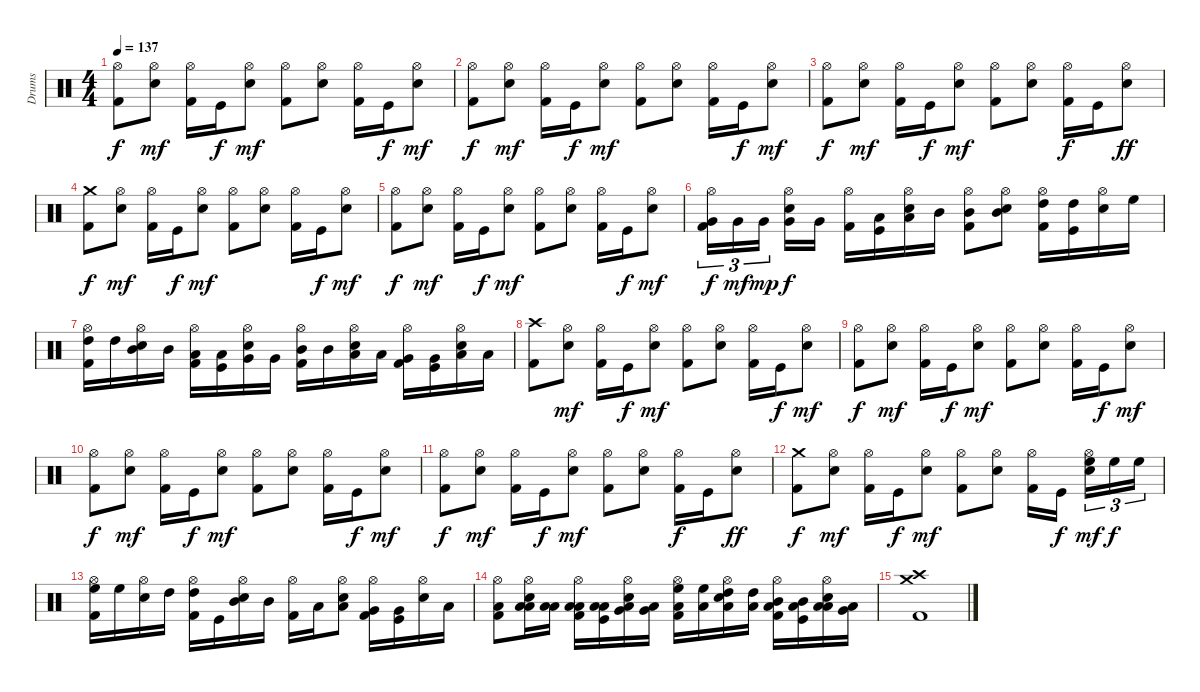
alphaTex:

\track ("Drums" "Drums") {instrument percussion}
\staff {score}
\articulation defaults
\ts (4 4)
\tempo 137
\clef neutral
\ks c
("Hi-Hat (open)" "Kick (hit) 2").8{dy f} ("Hi-Hat (open)" "Snare (hit) 2").8{dy mf} ("Hi-Hat (open)" "Kick (hit) 2").16 "Kick (hit)".16{dy f} ("Hi-Hat (open)" "Snare (hit) 2").8{dy mf} ("Hi-Hat (open)" "Kick (hit) 2").8 ("Hi-Hat (open)" "Snare (hit) 2").8 ("Hi-Hat (open)" "Kick (hit) 2").16 "Kick (hit)".16{dy f} ("Hi-Hat (open)" "Snare (hit) 2").8{dy mf} |
("Hi-Hat (open)" "Kick (hit) 2").8{dy f} ("Hi-Hat (open)" "Snare (hit) 2").8{dy mf} ("Hi-Hat (open)" "Kick (hit) 2").16 "Kick (hit)".16{dy f} ("Hi-Hat (open)" "Snare (hit) 2").8{dy mf} ("Hi-Hat (open)" "Kick (hit) 2").8 ("Hi-Hat (open)" "Snare (hit) 2").8 ("Hi-Hat (open)" "Kick (hit) 2").16 "Kick (hit)".16{dy f} ("Hi-Hat (open)" "Snare (hit) 2").8{dy mf} |
("Hi-Hat (open)" "Kick (hit) 2").8{dy f} ("Hi-Hat (open)" "Snare (hit) 2").8{dy mf} ("Hi-Hat (open)" "Kick (hit) 2").16 "Kick (hit)".16{dy f} ("Hi-Hat (open)" "Snare (hit) 2").8{dy mf} ("Hi-Hat (open)" "Kick (hit) 2").8 ("Hi-Hat (open)" "Snare (hit) 2").8 ("Hi-Hat (open)" "Kick (hit) 2").16{dy f} "Kick (hit)".16 ("Hi-Hat (open)" "Snare (hit) 2").8{dy ff} |
("Crash medium (hit)" "Kick (hit) 2").8{dy f} ("Hi-Hat (open)" "Snare (hit) 2").8{dy mf} ("Hi-Hat (open)" "Kick (hit) 2").16 "Kick (hit)".16{dy f} ("Hi-Hat (open)" "Snare (hit) 2").8{dy mf} ("Hi-Hat (open)" "Kick (hit) 2").8 ("Hi-Hat (open)" "Snare (hit) 2").8 ("Hi-Hat (open)" "Kick (hit) 2").16 "Kick (hit)".16{dy f} ("Hi-Hat (open)" "Snare (hit) 2").8{dy mf} |
("Hi-Hat (open)" "Kick (hit) 2").8{dy f} ("Hi-Hat (open)" "Snare (hit) 2").8{dy mf} ("Hi-Hat (open)" "Kick (hit) 2").16 "Kick (hit)".16{dy f} ("Hi-Hat (open)" "Snare (hit) 2").8{dy mf} ("Hi-Hat (open)" "Kick (hit) 2").8 ("Hi-Hat (open)" "Snare (hit) 2").8 ("Hi-Hat (open)" "Kick (hit) 2").16 "Kick (hit)".16{dy f} ("Hi-Hat (open)" "Snare (hit) 2").8{dy mf} |
("Hi-Hat (open)" "Very Low Tom (hit)" "Kick (hit) 2").16{tu (3 2) dy f} "Very Low Tom (hit)".16{tu (3 2) dy mf} "Very Low Tom (hit)".16{tu (3 2) dy mp beam splitsecondary} ("Hi-Hat (open)" "Very Low Tom (hit)" "Snare (hit) 2").16{dy f} "Very Low Tom (hit)".16 ("Hi-Hat (open)" "Kick (hit) 2").16 ("Low Tom (hit)" "Kick (hit)").16 ("Hi-Hat (open)" "Low Tom (hit)" "Snare (hit) 2").16 "Mid Tom (hit)".16 ("Hi-Hat (open)" "Mid Tom (hit)" "Kick (hit) 2").8 ("Hi-Hat (open)" "Mid Tom (hit)" "Snare (hit) 2").8 ("Hi-Hat (open)" "High Tom (hit)" "Kick (hit) 2").16 ("High Tom (hit)" "Kick (hit)").16 ("Hi-Hat (open)" "Snare (hit) 2").16 "High Floor Tom (hit)".16 |
("Hi-Hat (open)" "High Tom (hit)" "Kick (hit) 2").16 "High Tom (hit)".16 ("Hi-Hat (open)" "Mid Tom (hit)" "Snare (hit) 2").16 "Mid Tom (hit)".16 ("Hi-Hat (open)" "Low Tom (hit)" "Kick (hit) 2").16 ("Low Tom (hit)" "Kick (hit)").16 ("Hi-Hat (open)" "Very Low Tom (hit)" "Snare (hit) 2").16 "Very Low Tom (hit)".16 ("Hi-Hat (open)" "Mid Tom (hit)" "Kick (hit) 2").16 "Mid Tom (hit)".16 ("Hi-Hat (open)" "Low Tom (hit)" "Snare (hit) 2").16 "Low Tom (hit)".16 ("Hi-Hat (open)" "Very Low Tom (hit)" "Kick (hit) 2").16 ("Very Low Tom (hit)" "Kick (hit)").16 ("Hi-Hat (open)" "Low Floor Tom (hit)" "Snare (hit) 2").16 "Low Floor Tom (hit)".16 |
("Crash high (hit)" "Kick (hit) 2").8 ("Hi-Hat (open)" "Snare (hit) 2").8{dy mf} ("Hi-Hat (open)" "Kick (hit) 2").16 "Kick (hit)".16{dy f} ("Hi-Hat (open)" "Snare (hit) 2").8{dy mf} ("Hi-Hat (open)" "Kick (hit) 2").8 ("Hi-Hat (open)" "Snare (hit) 2").8 ("Hi-Hat (open)" "Kick (hit) 2").16 "Kick (hit)".16{dy f} ("Hi-Hat (open)" "Snare (hit) 2").8{dy mf} |
("Hi-Hat (open)" "Kick (hit) 2").8{dy f} ("Hi-Hat (open)" "Snare (hit) 2").8{dy mf} ("Hi-Hat (open)" "Kick (hit) 2").16 "Kick (hit)".16{dy f} ("Hi-Hat (open)" "Snare (hit) 2").8{dy mf} ("Hi-Hat (open)" "Kick (hit) 2").8 ("Hi-Hat (open)" "Snare (hit) 2").8 ("Hi-Hat (open)" "Kick (hit) 2").16 "Kick (hit)".16{dy f} ("Hi-Hat (open)" "Snare (hit) 2").8{dy mf} |
("Hi-Hat (open)" "Kick (hit) 2").8{dy f} ("Hi-Hat (open)" "Snare (hit) 2").8{dy mf} ("Hi-Hat (open)" "Kick (hit) 2").16 "Kick (hit)".16{dy f} ("Hi-Hat (open)" "Snare (hit) 2").8{dy mf} ("Hi-Hat (open)" "Kick (hit) 2").8 ("Hi-Hat (open)" "Snare (hit) 2").8 ("Hi-Hat (open)" "Kick (hit) 2").16 "Kick (hit)".16{dy f} ("Hi-Hat (open)" "Snare (hit) 2").8{dy mf} |
("Hi-Hat (open)" "Kick (hit) 2").8{dy f} ("Hi-Hat (open)" "Snare (hit) 2").8{dy mf} ("Hi-Hat (open)" "Kick (hit) 2").16 "Kick (hit)".16{dy f} ("Hi-Hat (open)" "Snare (hit) 2").8{dy mf} ("Hi-Hat (open)" "Kick (hit) 2").8 ("Hi-Hat (open)" "Snare (hit) 2").8 ("Hi-Hat (open)" "Kick (hit) 2").16{dy f} "Kick (hit)".16 ("Hi-Hat (open)" "Snare (hit) 2").8{dy ff} |
("Crash medium (hit)" "Kick (hit) 2").8{dy f} ("Hi-Hat (open)" "Snare (hit) 2").8{dy mf} ("Hi-Hat (open)" "Kick (hit) 2").16 "Kick (hit)".16{dy f} ("Hi-Hat (open)" "Snare (hit) 2").8{dy mf} ("Hi-Hat (open)" "Kick (hit) 2").8 ("Hi-Hat (open)" "Snare (hit) 2").8 ("Hi-Hat (open)" "Kick (hit) 2").16 "Kick (hit)".16{dy f beam splitsecondary} ("Hi-Hat (open)" "High Floor Tom (hit)" "Snare (hit) 2").16{tu (3 2) dy mf} "High Floor Tom (hit)".16{tu (3 2) dy f} "High Floor Tom (hit)".16{tu (3 2)} |
("Hi-Hat (open)" "High Floor Tom (hit)" "Kick (hit) 2").16 "High Floor Tom (hit)".16 ("Hi-Hat (open)" "Snare (hit) 2").16 "High Tom (hit)".16 ("Hi-Hat (open)" "High Tom (hit)" "Kick (hit) 2").16 "Kick (hit)".16 ("Hi-Hat (open)" "Mid Tom (hit)" "Snare (hit) 2").16 "Mid Tom (hit)".16 ("Hi-Hat (open)" "Kick (hit) 2").16 "Low Tom (hit)".16 ("Hi-Hat (open)" "Low Tom (hit)" "Snare (hit) 2").8 ("Hi-Hat (open)" "Very Low Tom (hit)" "Kick (hit) 2").16 ("Very Low Tom (hit)" "Kick (hit)").16 ("Hi-Hat (open)" "Snare (hit) 2").16 "Low Floor Tom (hit)".16 |
("Hi-Hat (open)" "Low Floor Tom (hit)" "Kick (hit) 2").8 ("Hi-Hat (open)" "Low Tom (hit)" "Low Floor Tom (hit)" "Snare (hit) 2").16 ("Low Tom (hit)" "Low Floor Tom (hit)").16 ("Hi-Hat (open)" "Low Tom (hit)" "Low Floor Tom (hit)" "Kick (hit) 2").16 ("Low Tom (hit)" "Low Floor Tom (hit)" "Kick (hit)").16 ("Hi-Hat (open)" "Very Low Tom (hit)" "Low Floor Tom (hit)" "Snare (hit) 2").16 ("Very Low Tom (hit)" "Low Floor Tom (hit)").16 ("Hi-Hat (open)" "High Floor Tom (hit)" "Low Floor Tom (hit)" "Kick (hit) 2").16 ("High Floor Tom (hit)" "Low Floor Tom (hit)").16 ("Hi-Hat (open)" "High Tom (hit)" "Low Floor Tom (hit)" "Snare (hit) 2").16 ("High Tom (hit)" "Low Floor Tom (hit)").16 ("Hi-Hat (open)" "Mid Tom (hit)" "Low Floor Tom (hit)" "Kick (hit) 2").16 ("Mid Tom (hit)" "Low Floor Tom (hit)" "Kick (hit)").16 ("Hi-Hat (open)" "Low Tom (hit)" "Low Floor Tom (hit)" "Snare (hit) 2").16 ("Very Low Tom (hit)" "Low Floor Tom (hit)").16 |
("Crash medium (hit)" "Crash high (hit)" "Kick (hit) 2").1
